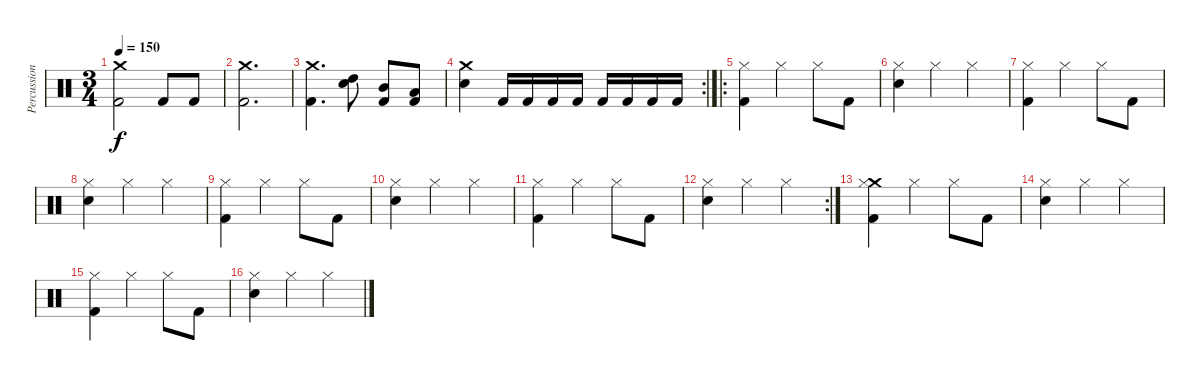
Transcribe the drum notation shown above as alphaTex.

\track ("Percussion" "Percussion") {instrument percussion}
\staff {score}
\articulation defaults
\ts (3 4)
\tempo 150
\clef neutral
\ks c
("Crash medium (hit)" "Kick (hit) 2").2{dy f} "Kick (hit) 2".8 "Kick (hit) 2".8 |
("Crash medium (hit)" "Kick (hit) 2").2{d} |
("Crash medium (hit)" "Kick (hit) 2").4{d} ("High Tom (hit)" "Snare (hit) 2").8 ("Mid Tom (hit)" "Kick (hit) 2").8 ("Low Tom (hit)" "Kick (hit) 2").8 |
\rc 2
("Crash medium (hit)" "Snare (hit) 2").4 "Kick (hit) 2".16 "Kick (hit) 2".16 "Kick (hit) 2".16 "Kick (hit) 2".16 "Kick (hit) 2".16 "Kick (hit) 2".16 "Kick (hit) 2".16 "Kick (hit) 2".16 |
\ro
("Hi-Hat (closed)" "Kick (hit) 2").4 "Hi-Hat (closed)".4 "Hi-Hat (closed)".8 "Kick (hit) 2".8 |
("Hi-Hat (closed)" "Snare (hit) 2").4 "Hi-Hat (closed)".4 "Hi-Hat (closed)".4 |
("Hi-Hat (closed)" "Kick (hit) 2").4 "Hi-Hat (closed)".4 "Hi-Hat (closed)".8 "Kick (hit) 2".8 |
("Hi-Hat (closed)" "Snare (hit) 2").4 "Hi-Hat (closed)".4 "Hi-Hat (closed)".4 |
("Hi-Hat (closed)" "Kick (hit) 2").4 "Hi-Hat (closed)".4 "Hi-Hat (closed)".8 "Kick (hit) 2".8 |
("Hi-Hat (closed)" "Snare (hit) 2").4 "Hi-Hat (closed)".4 "Hi-Hat (closed)".4 |
("Hi-Hat (closed)" "Kick (hit) 2").4 "Hi-Hat (closed)".4 "Hi-Hat (closed)".8 "Kick (hit) 2".8 |
\rc 2
("Hi-Hat (closed)" "Snare (hit) 2").4 "Hi-Hat (closed)".4 "Hi-Hat (closed)".4 |
("Crash medium (hit)" "Hi-Hat (closed)" "Kick (hit) 2").4 "Hi-Hat (closed)".4 "Hi-Hat (closed)".8 "Kick (hit) 2".8 |
("Hi-Hat (closed)" "Snare (hit) 2").4 "Hi-Hat (closed)".4 "Hi-Hat (closed)".4 |
("Hi-Hat (closed)" "Kick (hit) 2").4 "Hi-Hat (closed)".4 "Hi-Hat (closed)".8 "Kick (hit) 2".8 |
("Hi-Hat (closed)" "Snare (hit) 2").4 "Hi-Hat (closed)".4 "Hi-Hat (closed)".4
